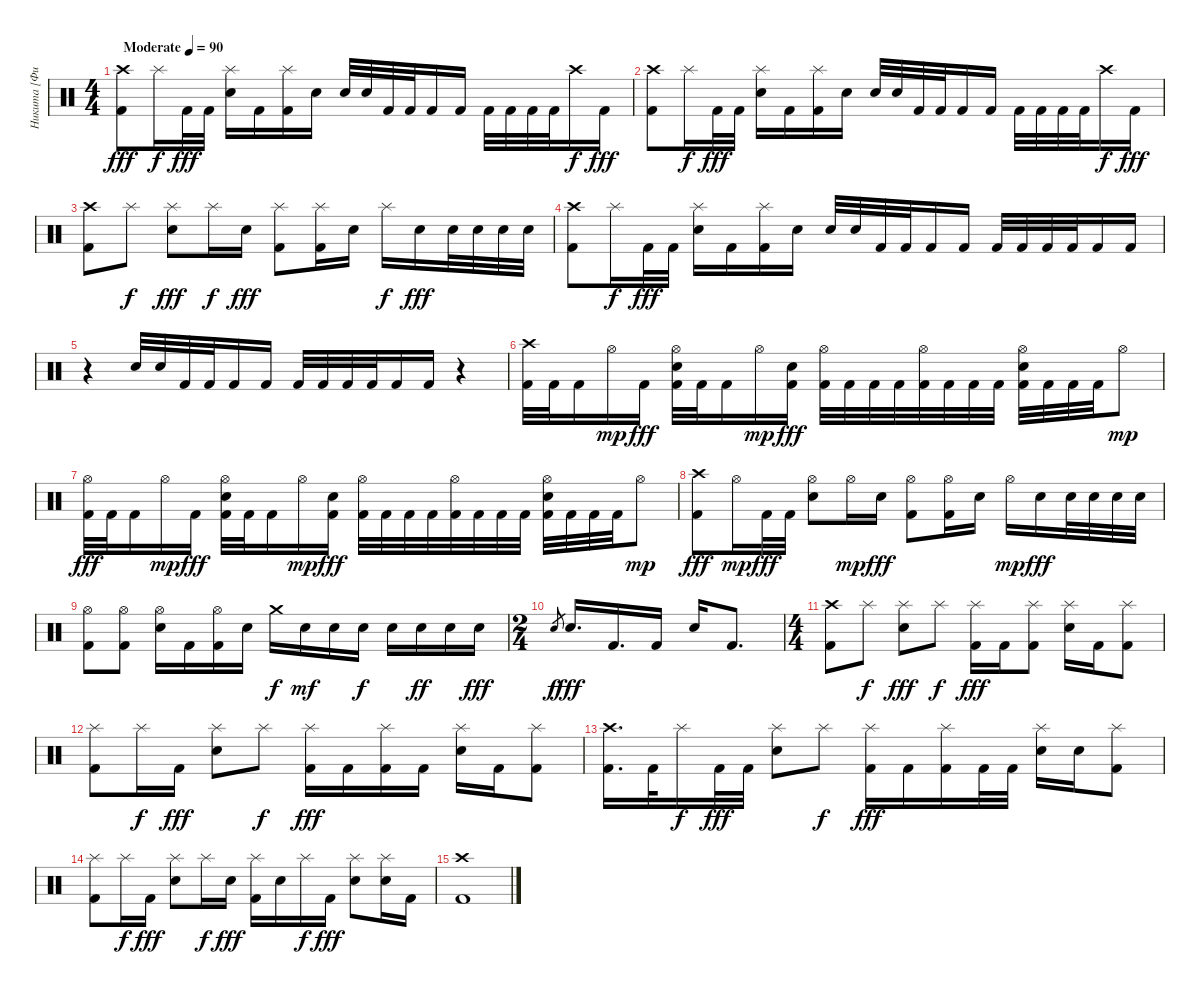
\track ("Никита [Фил]" "Никита [Фи") {instrument percussion}
\staff {score}
\articulation defaults
\ts (4 4)
\tempo (90 "Moderate")
\clef neutral
\ks c
("Crash high (hit)" "Kick (hit) 2").8{dy fff} "Splash (hit)".16{dy f} "Kick (hit) 2".32{dy fff} "Kick (hit) 2".32 ("Splash (hit)" "Electric Snare (hit)").16 "Kick (hit) 2".16 ("Splash (hit)" "Kick (hit) 2").16 "Electric Snare (hit)".16 "Electric Snare (hit)".32 "Electric Snare (hit)".32 "Kick (hit) 2".32 "Kick (hit) 2".32 "Kick (hit) 2".16 "Kick (hit) 2".16 "Kick (hit) 2".32 "Kick (hit) 2".32 "Kick (hit) 2".32 "Kick (hit) 2".32 "Crash high (hit)".16{dy f} "Kick (hit) 2".16{dy fff} |
("Crash high (hit)" "Kick (hit) 2").8 "Splash (hit)".16{dy f} "Kick (hit) 2".32{dy fff} "Kick (hit) 2".32 ("Splash (hit)" "Electric Snare (hit)").16 "Kick (hit) 2".16 ("Splash (hit)" "Kick (hit) 2").16 "Electric Snare (hit)".16 "Electric Snare (hit)".32 "Electric Snare (hit)".32 "Kick (hit) 2".32 "Kick (hit) 2".32 "Kick (hit) 2".16 "Kick (hit) 2".16 "Kick (hit) 2".32 "Kick (hit) 2".32 "Kick (hit) 2".32 "Kick (hit) 2".32 "Crash high (hit)".16{dy f} "Kick (hit) 2".16{dy fff} |
("Crash high (hit)" "Kick (hit) 2").8 "Splash (hit)".8{dy f} ("Splash (hit)" "Electric Snare (hit)").8{dy fff} "Splash (hit)".16{dy f} "Electric Snare (hit)".16{dy fff} ("Splash (hit)" "Kick (hit) 2").8 ("Splash (hit)" "Kick (hit) 2").16 "Electric Snare (hit)".16 "Splash (hit)".16{dy f} "Electric Snare (hit)".16{dy fff} "Electric Snare (hit)".32 "Electric Snare (hit)".32 "Electric Snare (hit)".32 "Electric Snare (hit)".32 |
("Crash high (hit)" "Kick (hit) 2").8 "Splash (hit)".16{dy f} "Kick (hit) 2".32{dy fff} "Kick (hit) 2".32 ("Splash (hit)" "Electric Snare (hit)").16 "Kick (hit) 2".16 ("Splash (hit)" "Kick (hit) 2").16 "Electric Snare (hit)".16 "Electric Snare (hit)".32 "Electric Snare (hit)".32 "Kick (hit) 2".32 "Kick (hit) 2".32 "Kick (hit) 2".16 "Kick (hit) 2".16 "Kick (hit) 2".32 "Kick (hit) 2".32 "Kick (hit) 2".32 "Kick (hit) 2".32 "Kick (hit) 2".16 "Kick (hit) 2".16 |
r.4 "Electric Snare (hit)".32 "Electric Snare (hit)".32 "Kick (hit) 2".32 "Kick (hit) 2".32 "Kick (hit) 2".16 "Kick (hit) 2".16 "Kick (hit) 2".32 "Kick (hit) 2".32 "Kick (hit) 2".32 "Kick (hit) 2".32 "Kick (hit) 2".16 "Kick (hit) 2".16 r.4 |
("Crash high (hit)" "Kick (hit) 2").32 "Kick (hit) 2".32 "Kick (hit) 2".16 "Hi-Hat (open)".16{dy mp} "Kick (hit) 2".16{dy fff} ("Hi-Hat (open)" "Electric Snare (hit)" "Kick (hit) 2").32 "Kick (hit) 2".32 "Kick (hit) 2".16 "Hi-Hat (open)".16{dy mp} ("Electric Snare (hit)" "Kick (hit) 2").16{dy fff} ("Hi-Hat (open)" "Kick (hit) 2").32 "Kick (hit) 2".32 "Kick (hit) 2".32 "Kick (hit) 2".32 ("Hi-Hat (open)" "Kick (hit) 2").32 "Kick (hit) 2".32 "Kick (hit) 2".32 "Kick (hit) 2".32 ("Hi-Hat (open)" "Electric Snare (hit)" "Kick (hit) 2").32 "Kick (hit) 2".32 "Kick (hit) 2".32 "Kick (hit) 2".32 "Hi-Hat (open)".8{dy mp} |
("Hi-Hat (open)" "Kick (hit) 2").32{dy fff} "Kick (hit) 2".32 "Kick (hit) 2".16 "Hi-Hat (open)".16{dy mp} "Kick (hit) 2".16{dy fff} ("Hi-Hat (open)" "Electric Snare (hit)" "Kick (hit) 2").32 "Kick (hit) 2".32 "Kick (hit) 2".16 "Hi-Hat (open)".16{dy mp} ("Electric Snare (hit)" "Kick (hit) 2").16{dy fff} ("Hi-Hat (open)" "Kick (hit) 2").32 "Kick (hit) 2".32 "Kick (hit) 2".32 "Kick (hit) 2".32 ("Hi-Hat (open)" "Kick (hit) 2").32 "Kick (hit) 2".32 "Kick (hit) 2".32 "Kick (hit) 2".32 ("Hi-Hat (open)" "Electric Snare (hit)" "Kick (hit) 2").32 "Kick (hit) 2".32 "Kick (hit) 2".32 "Kick (hit) 2".32 "Hi-Hat (open)".8{dy mp} |
("Crash high (hit)" "Kick (hit) 2").8{dy fff} "Hi-Hat (open)".16{dy mp} "Kick (hit) 2".32{dy fff} "Kick (hit) 2".32 ("Hi-Hat (open)" "Electric Snare (hit)").8 "Hi-Hat (open)".16{dy mp} "Electric Snare (hit)".16{dy fff} ("Hi-Hat (open)" "Kick (hit) 2").8 ("Hi-Hat (open)" "Kick (hit) 2").16 "Electric Snare (hit)".16 "Hi-Hat (open)".16{dy mp} "Electric Snare (hit)".16{dy fff} "Electric Snare (hit)".32 "Electric Snare (hit)".32 "Electric Snare (hit)".32 "Electric Snare (hit)".32 |
("Hi-Hat (open)" "Kick (hit) 2").8 ("Hi-Hat (open)" "Kick (hit) 2").8 ("Hi-Hat (open)" "Electric Snare (hit)").16 "Kick (hit) 2".16 ("Hi-Hat (open)" "Kick (hit) 2").16 "Electric Snare (hit)".16 "Crash medium (hit)".16{dy f} "Electric Snare (hit)".16{dy mf} "Electric Snare (hit)".16 "Electric Snare (hit)".16{dy f} "Electric Snare (hit)".16 "Electric Snare (hit)".16{dy ff} "Electric Snare (hit)".16 "Electric Snare (hit)".16{dy fff} |
\ts (2 4)
"Electric Snare (hit)".8{gr dy f} "Electric Snare (hit)".16{d dy fff} "Kick (hit) 2".16{d} "Kick (hit) 2".16 "Electric Snare (hit)".16 "Kick (hit) 2".8{d} |
\ts (4 4)
("Crash high (hit)" "Kick (hit) 2").8 "Splash (hit)".8{dy f} ("Splash (hit)" "Electric Snare (hit)").8{dy fff} "Splash (hit)".8{dy f} ("Splash (hit)" "Kick (hit) 2").16{dy fff} "Kick (hit) 2".16 ("Splash (hit)" "Kick (hit) 2").8 ("Splash (hit)" "Electric Snare (hit)").16 "Kick (hit) 2".16 ("Splash (hit)" "Kick (hit) 2").8 |
("Splash (hit)" "Kick (hit) 2").8 "Splash (hit)".16{dy f} "Kick (hit) 2".16{dy fff} ("Splash (hit)" "Electric Snare (hit)").8 "Splash (hit)".8{dy f} ("Splash (hit)" "Kick (hit) 2").16{dy fff} "Kick (hit) 2".16 ("Splash (hit)" "Kick (hit) 2").16 "Kick (hit) 2".16 ("Splash (hit)" "Electric Snare (hit)").16 "Kick (hit) 2".16 ("Splash (hit)" "Kick (hit) 2").8 |
("Crash high (hit)" "Kick (hit) 2").16{d} "Kick (hit) 2".32 "Splash (hit)".16{dy f} "Kick (hit) 2".32{dy fff} "Kick (hit) 2".32 ("Splash (hit)" "Electric Snare (hit)").8 "Splash (hit)".8{dy f} ("Splash (hit)" "Kick (hit) 2").16{dy fff} "Kick (hit) 2".16 ("Splash (hit)" "Kick (hit) 2").16 "Kick (hit) 2".32 "Kick (hit) 2".32 ("Splash (hit)" "Electric Snare (hit)").16 "Electric Snare (hit)".16 ("Splash (hit)" "Kick (hit) 2").8 |
("Splash (hit)" "Kick (hit) 2").8 "Splash (hit)".16{dy f} "Kick (hit) 2".16{dy fff} ("Splash (hit)" "Electric Snare (hit)").8 "Splash (hit)".16{dy f} "Electric Snare (hit)".16{dy fff} ("Splash (hit)" "Kick (hit) 2").16 "Electric Snare (hit)".16 "Splash (hit)".16{dy f} "Kick (hit) 2".16{dy fff} ("Splash (hit)" "Electric Snare (hit)").8 ("Splash (hit)" "Electric Snare (hit)").16 "Kick (hit) 2".16 |
("Crash high (hit)" "Kick (hit) 2").1
